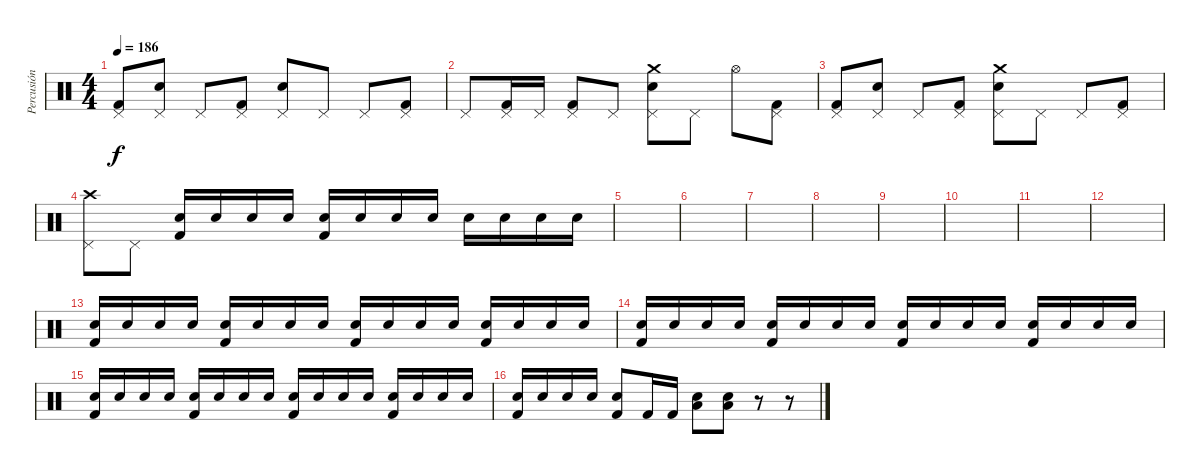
\track ("Percusión" "Percusión") {instrument percussion}
\staff {score}
\articulation defaults
\ts (4 4)
\tempo 186
\clef neutral
\ks c
("Kick (hit) 2" "Pedal Hi-Hat (hit)").8{dy f} ("Pedal Hi-Hat (hit)" "Snare (hit) 2").8 "Pedal Hi-Hat (hit)".8 ("Kick (hit) 2" "Pedal Hi-Hat (hit)").8 ("Pedal Hi-Hat (hit)" "Snare (hit) 2").8 "Pedal Hi-Hat (hit)".8 "Pedal Hi-Hat (hit)".8 ("Kick (hit) 2" "Pedal Hi-Hat (hit)").8 |
"Pedal Hi-Hat (hit)".8 ("Kick (hit) 2" "Pedal Hi-Hat (hit)").16 "Pedal Hi-Hat (hit)".16 ("Kick (hit) 2" "Pedal Hi-Hat (hit)").8 "Pedal Hi-Hat (hit)".8 ("Pedal Hi-Hat (hit)" "Snare (hit) 2" "Crash medium (hit)").8 "Pedal Hi-Hat (hit)".8 "Hi-Hat (open)".8 ("Kick (hit) 2" "Pedal Hi-Hat (hit)").8 |
("Kick (hit) 2" "Pedal Hi-Hat (hit)").8 ("Pedal Hi-Hat (hit)" "Snare (hit) 2").8 "Pedal Hi-Hat (hit)".8 ("Kick (hit) 2" "Pedal Hi-Hat (hit)").8 ("Pedal Hi-Hat (hit)" "Snare (hit) 2" "Crash medium (hit)").8 "Pedal Hi-Hat (hit)".8 "Pedal Hi-Hat (hit)".8 ("Kick (hit) 2" "Pedal Hi-Hat (hit)").8 |
("Pedal Hi-Hat (hit)" "Crash high (hit)").8 "Pedal Hi-Hat (hit)".8 ("Kick (hit) 2" "Snare (hit) 2").16 "Snare (hit) 2".16 "Snare (hit) 2".16 "Snare (hit) 2".16 ("Kick (hit) 2" "Snare (hit) 2").16 "Snare (hit) 2".16 "Snare (hit) 2".16 "Snare (hit) 2".16 "Snare (hit) 2".16 "Snare (hit) 2".16 "Snare (hit) 2".16 "Snare (hit) 2".16 |
|
|
|
|
|
|
|
|
("Kick (hit) 2" "Snare (hit) 2").16{volume 2} "Snare (hit) 2".16 "Snare (hit) 2".16 "Snare (hit) 2".16 ("Kick (hit) 2" "Snare (hit) 2").16{volume 3} "Snare (hit) 2".16 "Snare (hit) 2".16 "Snare (hit) 2".16 ("Kick (hit) 2" "Snare (hit) 2").16{volume 4} "Snare (hit) 2".16 "Snare (hit) 2".16 "Snare (hit) 2".16 ("Kick (hit) 2" "Snare (hit) 2").16{volume 5} "Snare (hit) 2".16 "Snare (hit) 2".16 "Snare (hit) 2".16 |
("Kick (hit) 2" "Snare (hit) 2").16{volume 6} "Snare (hit) 2".16 "Snare (hit) 2".16 "Snare (hit) 2".16 ("Kick (hit) 2" "Snare (hit) 2").16{volume 7} "Snare (hit) 2".16 "Snare (hit) 2".16 "Snare (hit) 2".16 ("Kick (hit) 2" "Snare (hit) 2").16{volume 8} "Snare (hit) 2".16 "Snare (hit) 2".16 "Snare (hit) 2".16 ("Kick (hit) 2" "Snare (hit) 2").16{volume 9} "Snare (hit) 2".16 "Snare (hit) 2".16 "Snare (hit) 2".16 |
("Kick (hit) 2" "Snare (hit) 2").16{volume 10} "Snare (hit) 2".16 "Snare (hit) 2".16 "Snare (hit) 2".16 ("Kick (hit) 2" "Snare (hit) 2").16{volume 11} "Snare (hit) 2".16 "Snare (hit) 2".16 "Snare (hit) 2".16 ("Kick (hit) 2" "Snare (hit) 2").16{volume 12} "Snare (hit) 2".16 "Snare (hit) 2".16 "Snare (hit) 2".16 ("Kick (hit) 2" "Snare (hit) 2").16{volume 13} "Snare (hit) 2".16 "Snare (hit) 2".16 "Snare (hit) 2".16 |
("Kick (hit) 2" "Snare (hit) 2").16{volume 14} "Snare (hit) 2".16 "Snare (hit) 2".16 "Snare (hit) 2".16 ("Kick (hit) 2" "Snare (hit) 2").8 "Kick (hit) 2".16 "Kick (hit) 2".16 ("Snare (hit) 2" "Low Floor Tom (hit)").8 ("Snare (hit) 2" "Low Floor Tom (hit)").8 r.8 r.8
